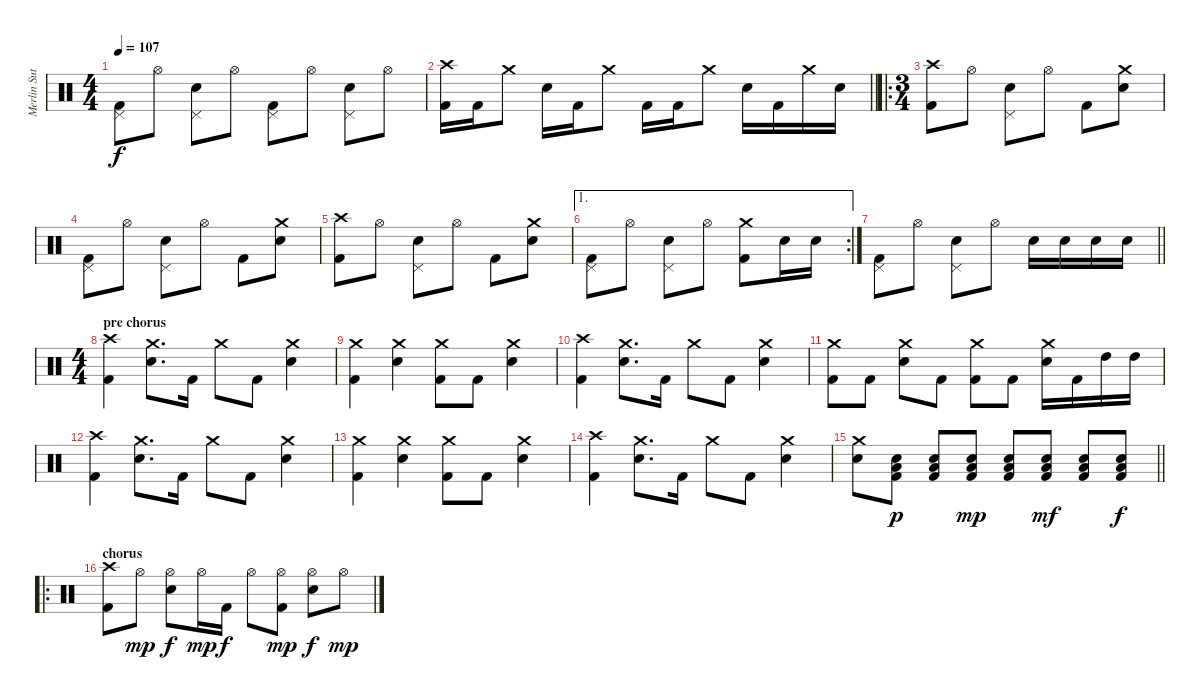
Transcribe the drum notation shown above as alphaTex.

\track ("Merlin Sutter" "Merlin Sut") {instrument percussion}
\staff {score}
\articulation defaults
\ts (4 4)
\tempo 107
\clef neutral
\ks c
("Pedal Hi-Hat (hit)" "Kick (hit) 2").8{dy f} "Hi-Hat (open)".8 ("Pedal Hi-Hat (hit)" "Snare (hit) 2").8 "Hi-Hat (open)".8 ("Pedal Hi-Hat (hit)" "Kick (hit) 2").8 "Hi-Hat (open)".8 ("Pedal Hi-Hat (hit)" "Snare (hit) 2").8 "Hi-Hat (open)".8 |
\barLineRight lightlight
("Crash high (hit)" "Kick (hit) 2").16 "Kick (hit) 2".16 "Crash medium (hit)".8 "Snare (hit) 2".16 "Kick (hit) 2".16 "Crash medium (hit)".8 "Kick (hit) 2".16 "Kick (hit) 2".16 "Crash medium (hit)".8 "Snare (hit) 2".16 "Kick (hit) 2".16 "Crash medium (hit)".16 "Snare (hit) 2".16 |
\ro
\ts (3 4)
\section ("" "")
("Crash high (hit)" "Kick (hit) 2").8 "Hi-Hat (open)".8 ("Pedal Hi-Hat (hit)" "Snare (hit) 2").8 "Hi-Hat (open)".8 "Kick (hit) 2".8 ("Crash medium (hit)" "Snare (hit) 2").8 |
("Pedal Hi-Hat (hit)" "Kick (hit) 2").8 "Hi-Hat (open)".8 ("Pedal Hi-Hat (hit)" "Snare (hit) 2").8 "Hi-Hat (open)".8 "Kick (hit) 2".8 ("Crash medium (hit)" "Snare (hit) 2").8 |
("Crash high (hit)" "Kick (hit) 2").8 "Hi-Hat (open)".8 ("Pedal Hi-Hat (hit)" "Snare (hit) 2").8 "Hi-Hat (open)".8 "Kick (hit) 2".8 ("Crash medium (hit)" "Snare (hit) 2").8 |
\ae 1
\rc 2
("Pedal Hi-Hat (hit)" "Kick (hit) 2").8 "Hi-Hat (open)".8 ("Pedal Hi-Hat (hit)" "Snare (hit) 2").8 "Hi-Hat (open)".8 ("Crash medium (hit)" "Kick (hit) 2").8 "Snare (hit) 2".16 "Snare (hit) 2".16 |
\barLineRight lightlight
("Pedal Hi-Hat (hit)" "Kick (hit) 2").8 "Hi-Hat (open)".8 ("Pedal Hi-Hat (hit)" "Snare (hit) 2").8 "Hi-Hat (open)".8 "Snare (hit) 2".16 "Snare (hit) 2".16 "Snare (hit) 2".16 "Snare (hit) 2".16 |
\ts (4 4)
\section ("" "pre chorus")
("Crash high (hit)" "Kick (hit) 2").4 ("Crash medium (hit)" "Snare (hit) 2").8{d} "Kick (hit) 2".16 "Crash medium (hit)".8 "Kick (hit) 2".8 ("Crash medium (hit)" "Snare (hit) 2").4 |
("Crash medium (hit)" "Kick (hit) 2").4 ("Crash medium (hit)" "Snare (hit) 2").4 ("Crash medium (hit)" "Kick (hit) 2").8 "Kick (hit) 2".8 ("Crash medium (hit)" "Snare (hit) 2").4 |
("Crash high (hit)" "Kick (hit) 2").4 ("Crash medium (hit)" "Snare (hit) 2").8{d} "Kick (hit) 2".16 "Crash medium (hit)".8 "Kick (hit) 2".8 ("Crash medium (hit)" "Snare (hit) 2").4 |
("Crash medium (hit)" "Kick (hit) 2").8 "Kick (hit) 2".8 ("Crash medium (hit)" "Snare (hit) 2").8 "Kick (hit) 2".8 ("Crash medium (hit)" "Kick (hit) 2").8 "Kick (hit) 2".8 ("Crash medium (hit)" "Snare (hit) 2").16 "Kick (hit) 2".16 "High Tom (hit)".16 "High Tom (hit)".16 |
("Crash high (hit)" "Kick (hit) 2").4 ("Crash medium (hit)" "Snare (hit) 2").8{d} "Kick (hit) 2".16 "Crash medium (hit)".8 "Kick (hit) 2".8 ("Crash medium (hit)" "Snare (hit) 2").4 |
("Crash medium (hit)" "Kick (hit) 2").4 ("Crash medium (hit)" "Snare (hit) 2").4 ("Crash medium (hit)" "Kick (hit) 2").8 "Kick (hit) 2".8 ("Crash medium (hit)" "Snare (hit) 2").4 |
("Crash high (hit)" "Kick (hit) 2").4 ("Crash medium (hit)" "Snare (hit) 2").8{d} "Kick (hit) 2".16 "Crash medium (hit)".8 "Kick (hit) 2".8 ("Crash medium (hit)" "Snare (hit) 2").4 |
\barLineRight lightlight
("Crash medium (hit)" "Snare (hit) 2").8 ("Low Tom (hit)" "Snare (hit) 2" "Kick (hit) 2").8{dy p} ("Low Tom (hit)" "Snare (hit) 2" "Kick (hit) 2").8 ("Low Tom (hit)" "Snare (hit) 2" "Kick (hit) 2").8{dy mp} ("Low Tom (hit)" "Snare (hit) 2" "Kick (hit) 2").8 ("Low Tom (hit)" "Snare (hit) 2" "Kick (hit) 2").8{dy mf} ("Low Tom (hit)" "Snare (hit) 2" "Kick (hit) 2").8 ("Low Tom (hit)" "Snare (hit) 2" "Kick (hit) 2").8{dy f} |
\ro
\section ("" "chorus")
("Crash high (hit)" "Kick (hit) 2").8 "Hi-Hat (open)".8{dy mp} ("Hi-Hat (open)" "Snare (hit) 2").8{dy f} "Hi-Hat (open)".16{dy mp} "Kick (hit) 2".16{dy f} "Hi-Hat (open)".8 ("Hi-Hat (open)" "Kick (hit) 2").8{dy mp} ("Hi-Hat (open)" "Snare (hit) 2").8{dy f} "Hi-Hat (open)".8{dy mp}
